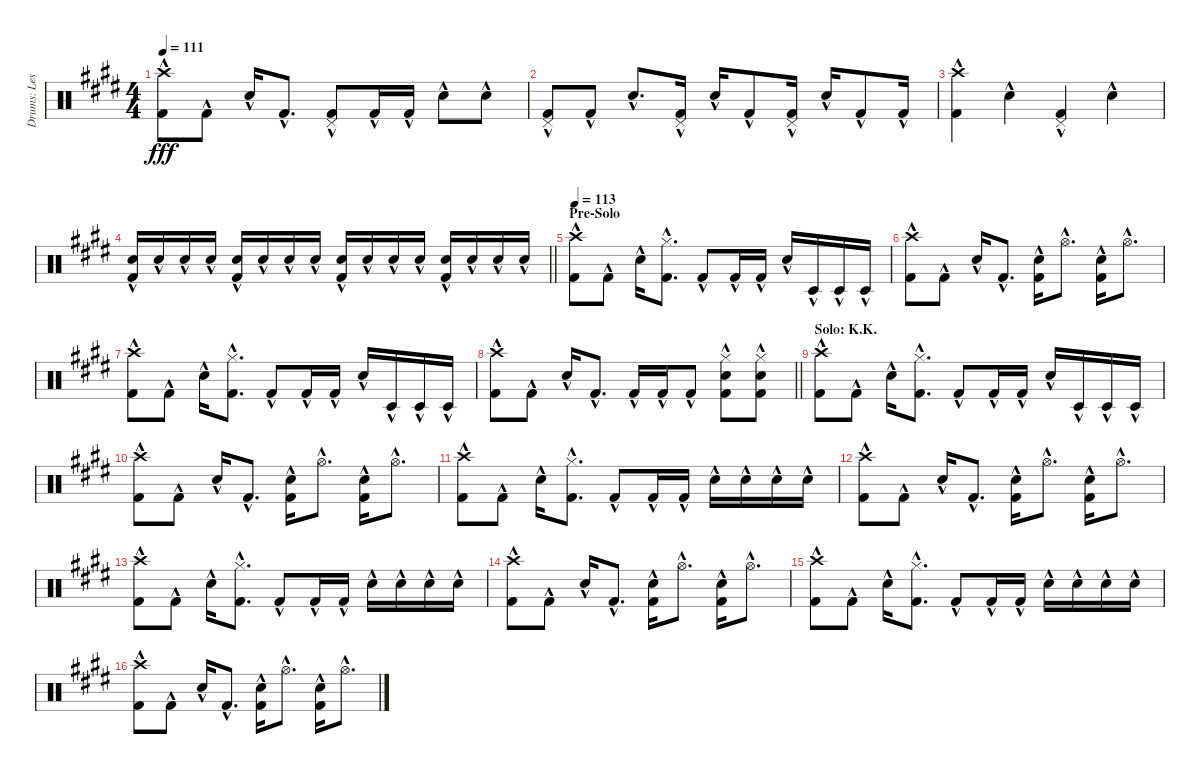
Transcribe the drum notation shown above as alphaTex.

\track ("Drums: Les" "Drums: Les") {instrument percussion}
\staff {score}
\articulation defaults
\ts (4 4)
\tempo 111
\clef neutral
\ks e
("Crash high (hit)"{hac} "Kick (hit) 2"{hac}).8{dy fff} "Kick (hit) 2"{hac}.8 "Electric Snare (hit)"{hac}.16 "Kick (hit) 2"{hac}.8{d} ("Pedal Hi-Hat (hit)"{hac} "Kick (hit) 2"{hac}).8 "Kick (hit) 2"{hac}.16 "Kick (hit) 2"{hac}.16 "Electric Snare (hit)"{hac}.8 "Electric Snare (hit)"{hac}.8 |
("Pedal Hi-Hat (hit)"{hac} "Kick (hit) 2"{hac}).8 "Kick (hit) 2"{hac}.8 "Electric Snare (hit)"{hac}.8{d} ("Pedal Hi-Hat (hit)"{hac} "Kick (hit) 2"{hac}).16 "Electric Snare (hit)"{hac}.16 "Kick (hit) 2"{hac}.8 ("Pedal Hi-Hat (hit)"{hac} "Kick (hit) 2"{hac}).16 "Electric Snare (hit)"{hac}.16 "Kick (hit) 2"{hac}.8 "Kick (hit) 2"{hac}.16 |
("Crash high (hit)"{hac} "Kick (hit) 2"{hac}).4 "Electric Snare (hit)"{hac}.4 ("Pedal Hi-Hat (hit)"{hac} "Kick (hit) 2"{hac}).4 "Electric Snare (hit)"{hac}.4 |
\barLineRight lightlight
("Electric Snare (hit)"{hac} "Kick (hit) 2"{hac}).16 "Electric Snare (hit)"{hac}.16 "Electric Snare (hit)"{hac}.16 "Electric Snare (hit)"{hac}.16 ("Electric Snare (hit)"{hac} "Kick (hit) 2"{hac}).16 "Electric Snare (hit)"{hac}.16 "Electric Snare (hit)"{hac}.16 "Electric Snare (hit)"{hac}.16 ("Electric Snare (hit)"{hac} "Kick (hit) 2"{hac}).16 "Electric Snare (hit)"{hac}.16 "Electric Snare (hit)"{hac}.16 "Electric Snare (hit)"{hac}.16 ("Electric Snare (hit)"{hac} "Kick (hit) 2"{hac}).16 "Electric Snare (hit)"{hac}.16 "Electric Snare (hit)"{hac}.16 "Electric Snare (hit)"{hac}.16 |
\section ("" "Pre-Solo")
\tempo 113
("Crash high (hit)"{hac} "Kick (hit) 2"{hac}).8 "Kick (hit) 2"{hac}.8 "Electric Snare (hit)"{hac}.16 ("Hi-Hat (closed)"{hac} "Kick (hit) 2"{hac}).8{d} "Kick (hit) 2"{hac}.8 "Kick (hit) 2"{hac}.16 "Kick (hit) 2"{hac}.16 "Electric Snare (hit)"{hac}.16 "Timbale low (hit)"{hac}.16 "Timbale low (hit)"{hac}.16 "Timbale low (hit)"{hac}.16 |
("Crash high (hit)"{hac} "Kick (hit) 2"{hac}).8 "Kick (hit) 2"{hac}.8 "Electric Snare (hit)"{hac}.16 "Kick (hit) 2"{hac}.8{d} ("Electric Snare (hit)"{hac} "Kick (hit) 2"{hac}).16 "Hi-Hat (open)"{hac}.8{d} ("Electric Snare (hit)"{hac} "Kick (hit) 2"{hac}).16 "Hi-Hat (open)"{hac}.8{d} |
("Crash high (hit)"{hac} "Kick (hit) 2"{hac}).8 "Kick (hit) 2"{hac}.8 "Electric Snare (hit)"{hac}.16 ("Hi-Hat (closed)"{hac} "Kick (hit) 2"{hac}).8{d} "Kick (hit) 2"{hac}.8 "Kick (hit) 2"{hac}.16 "Kick (hit) 2"{hac}.16 "Electric Snare (hit)"{hac}.16 "Timbale low (hit)"{hac}.16 "Timbale low (hit)"{hac}.16 "Timbale low (hit)"{hac}.16 |
\barLineRight lightlight
("Crash high (hit)"{hac} "Kick (hit) 2"{hac}).8 "Kick (hit) 2"{hac}.8 "Electric Snare (hit)"{hac}.16 "Kick (hit) 2"{hac}.8{d} "Kick (hit) 2"{hac}.16 "Kick (hit) 2"{hac}.16 "Kick (hit) 2"{hac}.8 ("Electric Snare (hit)"{hac} "Hi-Hat (closed)"{hac} "Kick (hit) 2"{hac}).8 ("Electric Snare (hit)"{hac} "Hi-Hat (closed)"{hac} "Kick (hit) 2"{hac}).8 |
\section ("" "Solo: K.K.")
("Crash high (hit)"{hac} "Kick (hit) 2"{hac}).8 "Kick (hit) 2"{hac}.8 "Electric Snare (hit)"{hac}.16 ("Hi-Hat (closed)"{hac} "Kick (hit) 2"{hac}).8{d} "Kick (hit) 2"{hac}.8 "Kick (hit) 2"{hac}.16 "Kick (hit) 2"{hac}.16 "Electric Snare (hit)"{hac}.16 "Timbale low (hit)"{hac}.16 "Timbale low (hit)"{hac}.16 "Timbale low (hit)"{hac}.16 |
("Crash high (hit)"{hac} "Kick (hit) 2"{hac}).8 "Kick (hit) 2"{hac}.8 "Electric Snare (hit)"{hac}.16 "Kick (hit) 2"{hac}.8{d} ("Electric Snare (hit)"{hac} "Kick (hit) 2"{hac}).16 "Hi-Hat (open)"{hac}.8{d} ("Electric Snare (hit)"{hac} "Kick (hit) 2"{hac}).16 "Hi-Hat (open)"{hac}.8{d} |
("Crash high (hit)"{hac} "Kick (hit) 2"{hac}).8 "Kick (hit) 2"{hac}.8 "Electric Snare (hit)"{hac}.16 ("Hi-Hat (closed)"{hac} "Kick (hit) 2"{hac}).8{d} "Kick (hit) 2"{hac}.8 "Kick (hit) 2"{hac}.16 "Kick (hit) 2"{hac}.16 "Electric Snare (hit)"{hac}.16 "Electric Snare (hit)"{hac}.16 "Electric Snare (hit)"{hac}.16 "Electric Snare (hit)"{hac}.16 |
("Crash high (hit)"{hac} "Kick (hit) 2"{hac}).8 "Kick (hit) 2"{hac}.8 "Electric Snare (hit)"{hac}.16 "Kick (hit) 2"{hac}.8{d} ("Electric Snare (hit)"{hac} "Kick (hit) 2"{hac}).16 "Hi-Hat (open)"{hac}.8{d} ("Electric Snare (hit)"{hac} "Kick (hit) 2"{hac}).16 "Hi-Hat (open)"{hac}.8{d} |
("Crash high (hit)"{hac} "Kick (hit) 2"{hac}).8 "Kick (hit) 2"{hac}.8 "Electric Snare (hit)"{hac}.16 ("Hi-Hat (closed)"{hac} "Kick (hit) 2"{hac}).8{d} "Kick (hit) 2"{hac}.8 "Kick (hit) 2"{hac}.16 "Kick (hit) 2"{hac}.16 "Electric Snare (hit)"{hac}.16 "Electric Snare (hit)"{hac}.16 "Electric Snare (hit)"{hac}.16 "Electric Snare (hit)"{hac}.16 |
("Crash high (hit)"{hac} "Kick (hit) 2"{hac}).8 "Kick (hit) 2"{hac}.8 "Electric Snare (hit)"{hac}.16 "Kick (hit) 2"{hac}.8{d} ("Electric Snare (hit)"{hac} "Kick (hit) 2"{hac}).16 "Hi-Hat (open)"{hac}.8{d} ("Electric Snare (hit)"{hac} "Kick (hit) 2"{hac}).16 "Hi-Hat (open)"{hac}.8{d} |
("Crash high (hit)"{hac} "Kick (hit) 2"{hac}).8 "Kick (hit) 2"{hac}.8 "Electric Snare (hit)"{hac}.16 ("Hi-Hat (closed)"{hac} "Kick (hit) 2"{hac}).8{d} "Kick (hit) 2"{hac}.8 "Kick (hit) 2"{hac}.16 "Kick (hit) 2"{hac}.16 "Electric Snare (hit)"{hac}.16 "Electric Snare (hit)"{hac}.16 "Electric Snare (hit)"{hac}.16 "Electric Snare (hit)"{hac}.16 |
("Crash high (hit)"{hac} "Kick (hit) 2"{hac}).8 "Kick (hit) 2"{hac}.8 "Electric Snare (hit)"{hac}.16 "Kick (hit) 2"{hac}.8{d} ("Electric Snare (hit)"{hac} "Kick (hit) 2"{hac}).16 "Hi-Hat (open)"{hac}.8{d} ("Electric Snare (hit)"{hac} "Kick (hit) 2"{hac}).16 "Hi-Hat (open)"{hac}.8{d}
